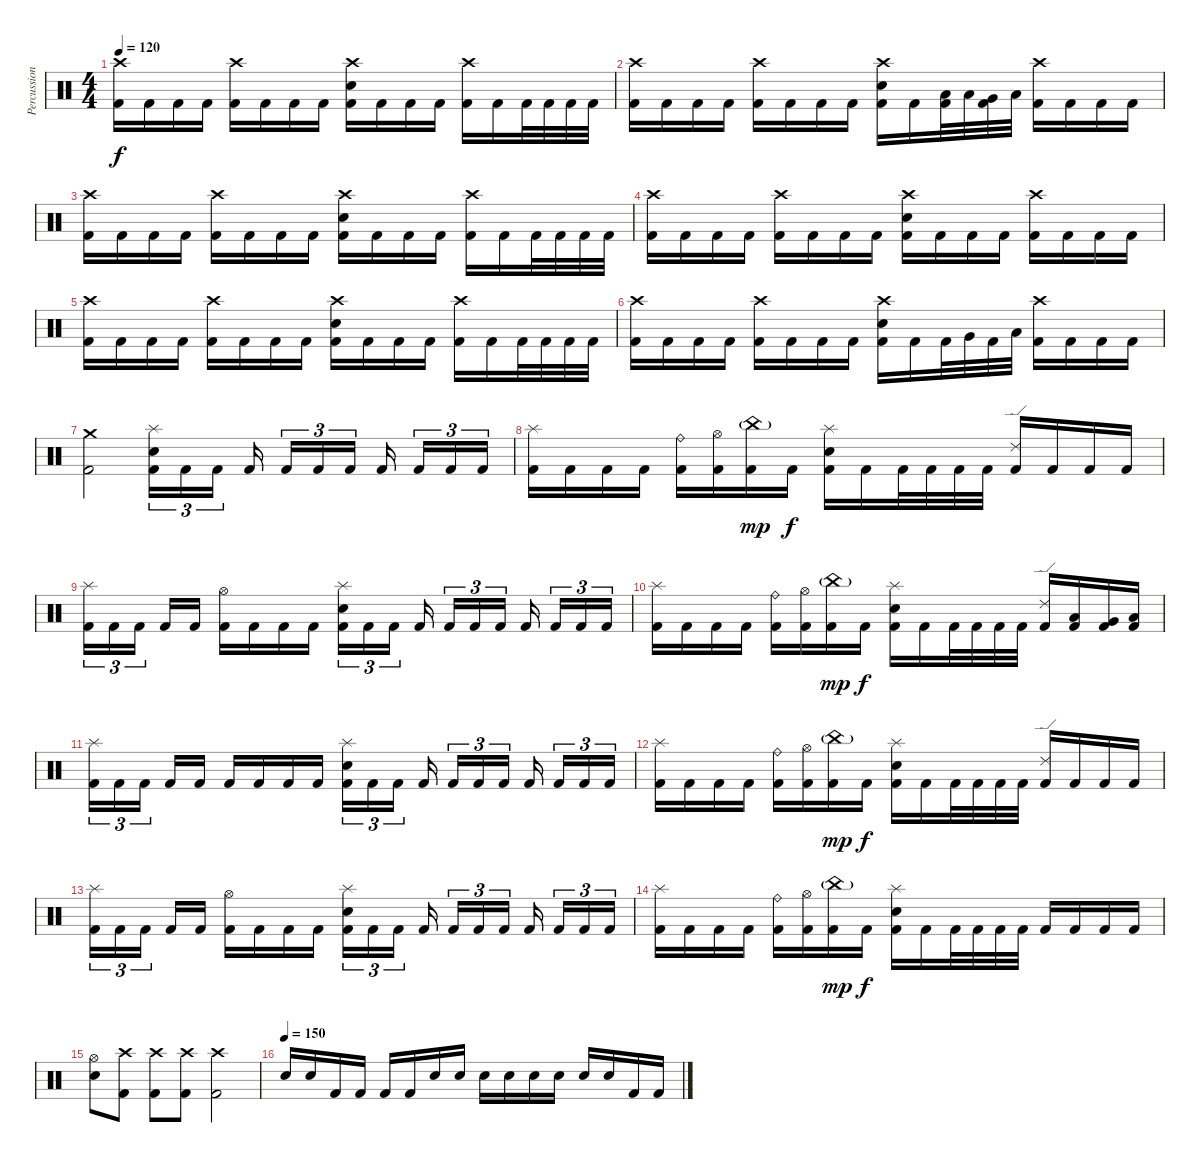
\track ("Percussion" "Percussion") {instrument percussion}
\staff {score}
\articulation defaults
\ts (4 4)
\tempo 120
\clef neutral
\ks c
("Crash high (hit)" "Kick (hit) 2").16{dy f} "Kick (hit) 2".16 "Kick (hit) 2".16 "Kick (hit) 2".16 ("Crash high (hit)" "Kick (hit) 2").16 "Kick (hit) 2".16 "Kick (hit) 2".16 "Kick (hit) 2".16 ("Crash high (hit)" "Electric Snare (hit)" "Kick (hit) 2").16 "Kick (hit) 2".16 "Kick (hit) 2".16 "Kick (hit) 2".16 ("Crash high (hit)" "Kick (hit) 2").16 "Kick (hit) 2".16 "Kick (hit) 2".32 "Kick (hit) 2".32 "Kick (hit) 2".32 "Kick (hit) 2".32 |
("Crash high (hit)" "Kick (hit) 2").16 "Kick (hit) 2".16 "Kick (hit) 2".16 "Kick (hit) 2".16 ("Crash high (hit)" "Kick (hit) 2").16 "Kick (hit) 2".16 "Kick (hit) 2".16 "Kick (hit) 2".16 ("Crash high (hit)" "Electric Snare (hit)" "Kick (hit) 2").16 "Kick (hit) 2".16 ("Low Tom (hit)" "Kick (hit) 2").32 "Low Tom (hit)".32 ("Very Low Tom (hit)" "Kick (hit) 2").32 "Low Floor Tom (hit)".32 ("Crash high (hit)" "Kick (hit) 2").16 "Kick (hit) 2".16 "Kick (hit) 2".16 "Kick (hit) 2".16 |
("Crash high (hit)" "Kick (hit) 2").16 "Kick (hit) 2".16 "Kick (hit) 2".16 "Kick (hit) 2".16 ("Crash high (hit)" "Kick (hit) 2").16 "Kick (hit) 2".16 "Kick (hit) 2".16 "Kick (hit) 2".16 ("Crash high (hit)" "Electric Snare (hit)" "Kick (hit) 2").16 "Kick (hit) 2".16 "Kick (hit) 2".16 "Kick (hit) 2".16 ("Crash high (hit)" "Kick (hit) 2").16 "Kick (hit) 2".16 "Kick (hit) 2".32 "Kick (hit) 2".32 "Kick (hit) 2".32 "Kick (hit) 2".32 |
("Crash high (hit)" "Kick (hit) 2").16 "Kick (hit) 2".16 "Kick (hit) 2".16 "Kick (hit) 2".16 ("Crash high (hit)" "Kick (hit) 2").16 "Kick (hit) 2".16 "Kick (hit) 2".16 "Kick (hit) 2".16 ("Crash high (hit)" "Electric Snare (hit)" "Kick (hit) 2").16 "Kick (hit) 2".16 "Kick (hit) 2".16 "Kick (hit) 2".16 ("Crash high (hit)" "Kick (hit) 2").16 "Kick (hit) 2".16 "Kick (hit) 2".16 "Kick (hit) 2".16 |
("Crash high (hit)" "Kick (hit) 2").16 "Kick (hit) 2".16 "Kick (hit) 2".16 "Kick (hit) 2".16 ("Crash high (hit)" "Kick (hit) 2").16 "Kick (hit) 2".16 "Kick (hit) 2".16 "Kick (hit) 2".16 ("Crash high (hit)" "Electric Snare (hit)" "Kick (hit) 2").16 "Kick (hit) 2".16 "Kick (hit) 2".16 "Kick (hit) 2".16 ("Crash high (hit)" "Kick (hit) 2").16 "Kick (hit) 2".16 "Kick (hit) 2".32 "Kick (hit) 2".32 "Kick (hit) 2".32 "Kick (hit) 2".32 |
("Crash high (hit)" "Kick (hit) 2").16 "Kick (hit) 2".16 "Kick (hit) 2".16 "Kick (hit) 2".16 ("Crash high (hit)" "Kick (hit) 2").16 "Kick (hit) 2".16 "Kick (hit) 2".16 "Kick (hit) 2".16 ("Crash high (hit)" "Electric Snare (hit)" "Kick (hit) 2").16 "Kick (hit) 2".16 "Kick (hit) 2".32 "Very Low Tom (hit)".32 "Kick (hit) 2".32 "Low Floor Tom (hit)".32 ("Crash high (hit)" "Kick (hit) 2").16 "Kick (hit) 2".16 "Kick (hit) 2".16 "Kick (hit) 2".16 |
("Crash medium (hit)" "Kick (hit) 2").2 ("Splash (hit)" "Electric Snare (hit)" "Kick (hit) 2").16{tu (3 2)} "Kick (hit) 2".16{tu (3 2)} "Kick (hit) 2".16{tu (3 2) beam splitsecondary} "Kick (hit) 2".16{beam splitsecondary} "Kick (hit) 2".16{tu (3 2)} "Kick (hit) 2".16{tu (3 2)} "Kick (hit) 2".16{tu (3 2) beam splitsecondary} "Kick (hit) 2".16{beam splitsecondary} "Kick (hit) 2".16{tu (3 2)} "Kick (hit) 2".16{tu (3 2)} "Kick (hit) 2".16{tu (3 2)} |
("Splash (hit)" "Kick (hit) 2").16 "Kick (hit) 2".16 "Kick (hit) 2".16 "Kick (hit) 2".16 ("Ride (bell)" "Kick (hit) 2").16 ("Hi-Hat (open)" "Kick (hit) 2").16 ("China (hit)"{g} "Kick (hit) 2").16{dy mp} "Kick (hit) 2".16{dy f} ("Splash (hit)" "Electric Snare (hit)" "Kick (hit) 2").16 "Kick (hit) 2".16 "Kick (hit) 2".32 "Kick (hit) 2".32 "Kick (hit) 2".32 "Kick (hit) 2".32 ("Ride (edge) 2" "Kick (hit) 2").16 "Kick (hit) 2".16 "Kick (hit) 2".16 "Kick (hit) 2".16 |
("Splash (hit)" "Kick (hit) 2").16{tu (3 2)} "Kick (hit) 2".16{tu (3 2)} "Kick (hit) 2".16{tu (3 2) beam splitsecondary} "Kick (hit) 2".16 "Kick (hit) 2".16 ("Hi-Hat (open)" "Kick (hit) 2").16 "Kick (hit) 2".16 "Kick (hit) 2".16 "Kick (hit) 2".16 ("Splash (hit)" "Electric Snare (hit)" "Kick (hit) 2").16{tu (3 2)} "Kick (hit) 2".16{tu (3 2)} "Kick (hit) 2".16{tu (3 2) beam splitsecondary} "Kick (hit) 2".16{beam splitsecondary} "Kick (hit) 2".16{tu (3 2)} "Kick (hit) 2".16{tu (3 2)} "Kick (hit) 2".16{tu (3 2) beam splitsecondary} "Kick (hit) 2".16{beam splitsecondary} "Kick (hit) 2".16{tu (3 2)} "Kick (hit) 2".16{tu (3 2)} "Kick (hit) 2".16{tu (3 2)} |
("Splash (hit)" "Kick (hit) 2").16 "Kick (hit) 2".16 "Kick (hit) 2".16 "Kick (hit) 2".16 ("Ride (bell)" "Kick (hit) 2").16 ("Hi-Hat (open)" "Kick (hit) 2").16 ("China (hit)"{g} "Kick (hit) 2").16{dy mp} "Kick (hit) 2".16{dy f} ("Splash (hit)" "Electric Snare (hit)" "Kick (hit) 2").16 "Kick (hit) 2".16 "Kick (hit) 2".32 "Kick (hit) 2".32 "Kick (hit) 2".32 "Kick (hit) 2".32 ("Ride (edge) 2" "Kick (hit) 2").16 ("Low Tom (hit)" "Kick (hit) 2").16 ("Very Low Tom (hit)" "Kick (hit) 2").16 ("Low Floor Tom (hit)" "Kick (hit) 2").16 |
("Splash (hit)" "Kick (hit) 2").16{tu (3 2)} "Kick (hit) 2".16{tu (3 2)} "Kick (hit) 2".16{tu (3 2) beam splitsecondary} "Kick (hit) 2".16 "Kick (hit) 2".16 "Kick (hit) 2".16 "Kick (hit) 2".16 "Kick (hit) 2".16 "Kick (hit) 2".16 ("Splash (hit)" "Electric Snare (hit)" "Kick (hit) 2").16{tu (3 2)} "Kick (hit) 2".16{tu (3 2)} "Kick (hit) 2".16{tu (3 2) beam splitsecondary} "Kick (hit) 2".16{beam splitsecondary} "Kick (hit) 2".16{tu (3 2)} "Kick (hit) 2".16{tu (3 2)} "Kick (hit) 2".16{tu (3 2) beam splitsecondary} "Kick (hit) 2".16{beam splitsecondary} "Kick (hit) 2".16{tu (3 2)} "Kick (hit) 2".16{tu (3 2)} "Kick (hit) 2".16{tu (3 2)} |
("Splash (hit)" "Kick (hit) 2").16 "Kick (hit) 2".16 "Kick (hit) 2".16 "Kick (hit) 2".16 ("Ride (bell)" "Kick (hit) 2").16 ("Hi-Hat (open)" "Kick (hit) 2").16 ("China (hit)"{g} "Kick (hit) 2").16{dy mp} "Kick (hit) 2".16{dy f} ("Splash (hit)" "Electric Snare (hit)" "Kick (hit) 2").16 "Kick (hit) 2".16 "Kick (hit) 2".32 "Kick (hit) 2".32 "Kick (hit) 2".32 "Kick (hit) 2".32 ("Ride (edge) 2" "Kick (hit) 2").16 "Kick (hit) 2".16 "Kick (hit) 2".16 "Kick (hit) 2".16 |
("Splash (hit)" "Kick (hit) 2").16{tu (3 2)} "Kick (hit) 2".16{tu (3 2)} "Kick (hit) 2".16{tu (3 2) beam splitsecondary} "Kick (hit) 2".16 "Kick (hit) 2".16 ("Hi-Hat (open)" "Kick (hit) 2").16 "Kick (hit) 2".16 "Kick (hit) 2".16 "Kick (hit) 2".16 ("Splash (hit)" "Electric Snare (hit)" "Kick (hit) 2").16{tu (3 2)} "Kick (hit) 2".16{tu (3 2)} "Kick (hit) 2".16{tu (3 2) beam splitsecondary} "Kick (hit) 2".16{beam splitsecondary} "Kick (hit) 2".16{tu (3 2)} "Kick (hit) 2".16{tu (3 2)} "Kick (hit) 2".16{tu (3 2) beam splitsecondary} "Kick (hit) 2".16{beam splitsecondary} "Kick (hit) 2".16{tu (3 2)} "Kick (hit) 2".16{tu (3 2)} "Kick (hit) 2".16{tu (3 2)} |
("Splash (hit)" "Kick (hit) 2").16 "Kick (hit) 2".16 "Kick (hit) 2".16 "Kick (hit) 2".16 ("Ride (bell)" "Kick (hit) 2").16 ("Hi-Hat (open)" "Kick (hit) 2").16 ("China (hit)"{g} "Kick (hit) 2").16{dy mp} "Kick (hit) 2".16{dy f} ("Splash (hit)" "Electric Snare (hit)" "Kick (hit) 2").16 "Kick (hit) 2".16 "Kick (hit) 2".32 "Kick (hit) 2".32 "Kick (hit) 2".32 "Kick (hit) 2".32 "Kick (hit) 2".16 "Kick (hit) 2".16 "Kick (hit) 2".16 "Kick (hit) 2".16 |
("Hi-Hat (open)" "Electric Snare (hit)").8 ("Crash high (hit)" "Kick (hit) 2").8 ("Crash high (hit)" "Kick (hit) 2").8 ("Crash high (hit)" "Kick (hit) 2").8 ("Crash high (hit)" "Kick (hit) 2").2 |
\tempo (150)
"Electric Snare (hit)".16 "Electric Snare (hit)".16 "Kick (hit) 2".16 "Kick (hit) 2".16 "Kick (hit) 2".16 "Kick (hit) 2".16 "Electric Snare (hit)".16 "Electric Snare (hit)".16 "Electric Snare (hit)".16 "Electric Snare (hit)".16 "Electric Snare (hit)".16 "Electric Snare (hit)".16 "Electric Snare (hit)".16 "Electric Snare (hit)".16 "Kick (hit) 2".16 "Kick (hit) 2".16
